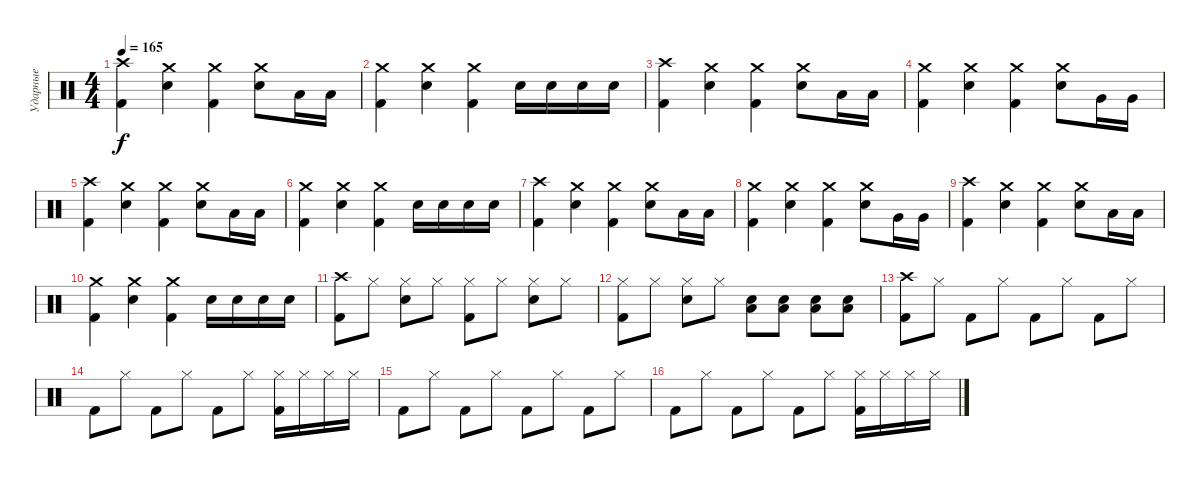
\track ("Ударные" "Ударные") {instrument percussion}
\staff {score}
\articulation defaults
\ts (4 4)
\tempo 165
\clef neutral
\ks c
("Crash high (hit)" "Kick (hit) 2").4{dy f} ("Crash medium (hit)" "Snare (hit) 2").4 ("Kick (hit) 2" "Crash medium (hit)").4 ("Snare (hit) 2" "Crash medium (hit)").8 "Low Tom (hit)".16 "Low Tom (hit)".16 |
("Crash medium (hit)" "Kick (hit) 2").4 ("Crash medium (hit)" "Snare (hit) 2").4 ("Kick (hit) 2" "Crash medium (hit)").4 "Snare (hit) 2".16 "Snare (hit) 2".16 "Snare (hit) 2".16 "Snare (hit) 2".16 |
("Crash high (hit)" "Kick (hit) 2").4 ("Crash medium (hit)" "Snare (hit) 2").4 ("Kick (hit) 2" "Crash medium (hit)").4 ("Snare (hit) 2" "Crash medium (hit)").8 "Low Tom (hit)".16 "Low Tom (hit)".16 |
("Crash medium (hit)" "Kick (hit) 2").4 ("Crash medium (hit)" "Snare (hit) 2").4 ("Kick (hit) 2" "Crash medium (hit)").4 ("Snare (hit) 2" "Crash medium (hit)").8 "Very Low Tom (hit)".16 "Very Low Tom (hit)".16 |
("Crash high (hit)" "Kick (hit) 2").4 ("Crash medium (hit)" "Snare (hit) 2").4 ("Kick (hit) 2" "Crash medium (hit)").4 ("Snare (hit) 2" "Crash medium (hit)").8 "Low Tom (hit)".16 "Low Tom (hit)".16 |
("Crash medium (hit)" "Kick (hit) 2").4 ("Crash medium (hit)" "Snare (hit) 2").4 ("Kick (hit) 2" "Crash medium (hit)").4 "Snare (hit) 2".16 "Snare (hit) 2".16 "Snare (hit) 2".16 "Snare (hit) 2".16 |
("Crash high (hit)" "Kick (hit) 2").4 ("Crash medium (hit)" "Snare (hit) 2").4 ("Kick (hit) 2" "Crash medium (hit)").4 ("Snare (hit) 2" "Crash medium (hit)").8 "Low Tom (hit)".16 "Low Tom (hit)".16 |
("Crash medium (hit)" "Kick (hit) 2").4 ("Crash medium (hit)" "Snare (hit) 2").4 ("Kick (hit) 2" "Crash medium (hit)").4 ("Snare (hit) 2" "Crash medium (hit)").8 "Very Low Tom (hit)".16 "Very Low Tom (hit)".16 |
("Crash high (hit)" "Kick (hit) 2").4 ("Crash medium (hit)" "Snare (hit) 2").4 ("Kick (hit) 2" "Crash medium (hit)").4 ("Snare (hit) 2" "Crash medium (hit)").8 "Low Tom (hit)".16 "Low Tom (hit)".16 |
("Crash medium (hit)" "Kick (hit) 2").4 ("Crash medium (hit)" "Snare (hit) 2").4 ("Kick (hit) 2" "Crash medium (hit)").4 "Snare (hit) 2".16 "Snare (hit) 2".16 "Snare (hit) 2".16 "Snare (hit) 2".16 |
("Kick (hit) 2" "Crash high (hit)").8 "Hi-Hat (closed)".8 ("Snare (hit) 2" "Hi-Hat (closed)").8 "Hi-Hat (closed)".8 ("Hi-Hat (closed)" "Kick (hit) 2").8 "Hi-Hat (closed)".8 ("Snare (hit) 2" "Hi-Hat (closed)").8 "Hi-Hat (closed)".8 |
("Kick (hit) 2" "Hi-Hat (closed)").8 "Hi-Hat (closed)".8 ("Snare (hit) 2" "Hi-Hat (closed)").8 "Hi-Hat (closed)".8 ("Low Tom (hit)" "Snare (hit) 2").8 ("Low Tom (hit)" "Snare (hit) 2").8 ("Low Tom (hit)" "Snare (hit) 2").8 ("Low Tom (hit)" "Snare (hit) 2").8 |
("Kick (hit) 2" "Crash high (hit)").8 "Hi-Hat (closed)".8 "Kick (hit) 2".8 "Hi-Hat (closed)".8 "Kick (hit) 2".8 "Hi-Hat (closed)".8 "Kick (hit) 2".8 "Hi-Hat (closed)".8 |
"Kick (hit) 2".8 "Hi-Hat (closed)".8 "Kick (hit) 2".8 "Hi-Hat (closed)".8 "Kick (hit) 2".8 "Hi-Hat (closed)".8 ("Kick (hit) 2" "Hi-Hat (closed)").16 "Hi-Hat (closed)".16 "Hi-Hat (closed)".16 "Hi-Hat (closed)".16 |
"Kick (hit) 2".8 "Hi-Hat (closed)".8 "Kick (hit) 2".8 "Hi-Hat (closed)".8 "Kick (hit) 2".8 "Hi-Hat (closed)".8 "Kick (hit) 2".8 "Hi-Hat (closed)".8 |
"Kick (hit) 2".8 "Hi-Hat (closed)".8 "Kick (hit) 2".8 "Hi-Hat (closed)".8 "Kick (hit) 2".8 "Hi-Hat (closed)".8 ("Kick (hit) 2" "Hi-Hat (closed)").16 "Hi-Hat (closed)".16 "Hi-Hat (closed)".16 "Hi-Hat (closed)".16
